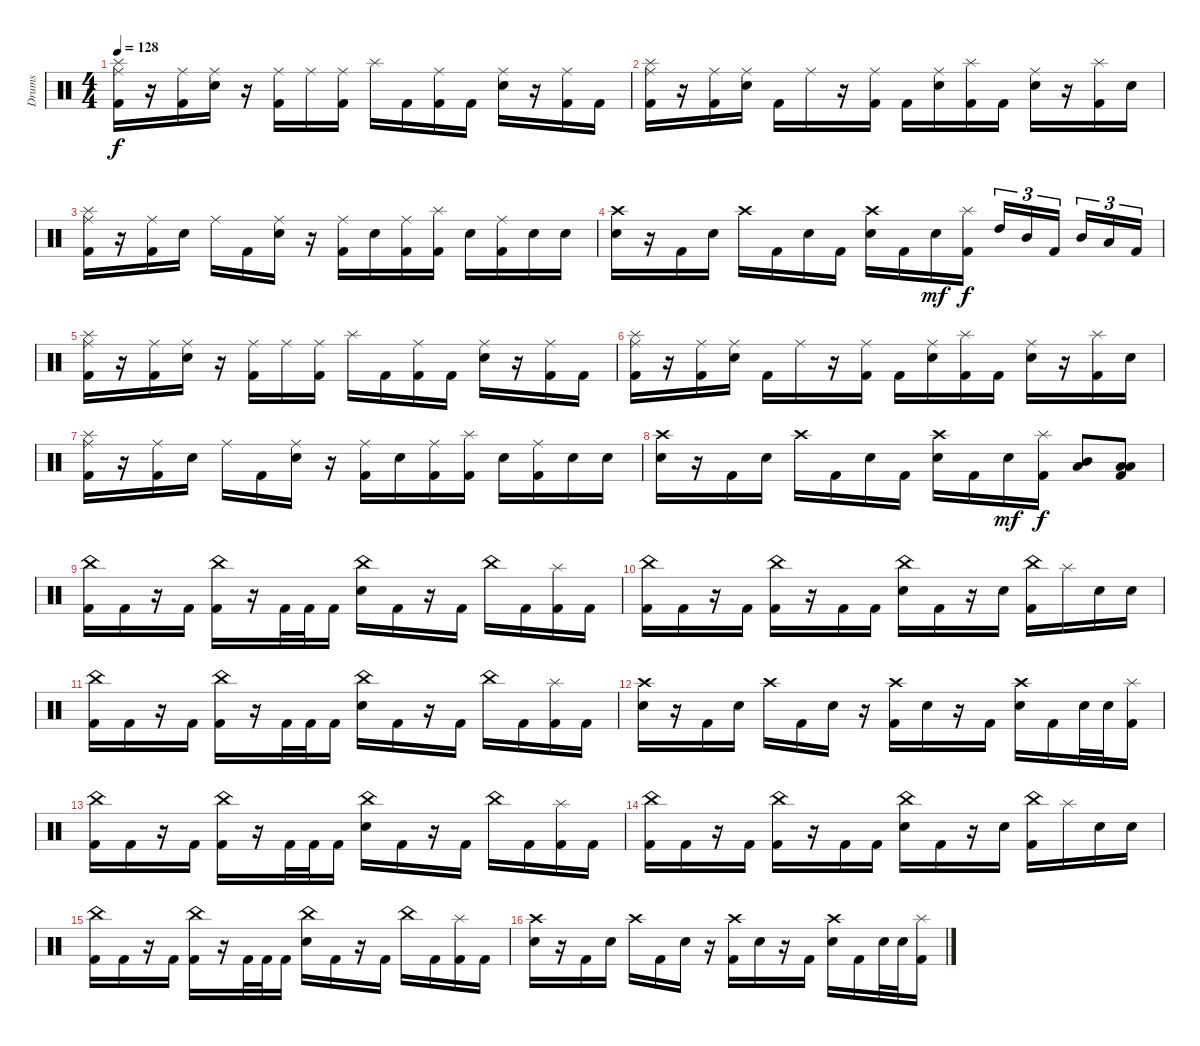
\track ("Drums" "Drums") {instrument percussion}
\staff {score}
\articulation defaults
\ts (4 4)
\tempo 128
\clef neutral
\ks c
("Ride (middle)" "Splash (hit)" "Kick (hit) 2").16{dy f} r.16 ("Ride (middle)" "Kick (hit) 2").16 ("Ride (middle)" "Electric Snare (hit)").16 r.16 ("Ride (middle)" "Kick (hit) 2").16 "Ride (middle)".16 ("Ride (middle)" "Kick (hit) 2").16 "Splash (hit)".16 "Kick (hit) 2".16 ("Ride (middle)" "Kick (hit) 2").16 "Kick (hit) 2".16 ("Ride (middle)" "Electric Snare (hit)").16 r.16 ("Ride (middle)" "Kick (hit) 2").16 "Kick (hit) 2".16 |
("Ride (middle)" "Splash (hit)" "Kick (hit) 2").16 r.16 ("Ride (middle)" "Kick (hit) 2").16 ("Ride (middle)" "Electric Snare (hit)").16 "Kick (hit) 2".16 "Ride (middle)".16 r.16 ("Ride (middle)" "Kick (hit) 2").16 "Kick (hit) 2".16 ("Ride (middle)" "Electric Snare (hit)").16 ("Splash (hit)" "Kick (hit) 2").16 "Kick (hit) 2".16 ("Ride (middle)" "Electric Snare (hit)").16 r.16 ("Splash (hit)" "Kick (hit) 2").16 "Electric Snare (hit)".16 |
("Ride (middle)" "Splash (hit)" "Kick (hit) 2").16 r.16 ("Ride (middle)" "Kick (hit) 2").16 "Electric Snare (hit)".16 "Ride (middle)".16 "Kick (hit) 2".16 ("Ride (middle)" "Electric Snare (hit)").16 r.16 ("Ride (middle)" "Kick (hit) 2").16 "Electric Snare (hit)".16 ("Ride (middle)" "Kick (hit) 2").16 ("Splash (hit)" "Kick (hit) 2").16 "Electric Snare (hit)".16 ("Ride (middle)" "Kick (hit) 2").16 "Electric Snare (hit)".16 "Electric Snare (hit)".16 |
("Crash high (hit)" "Electric Snare (hit)").16 r.16 "Kick (hit) 2".16 "Electric Snare (hit)".16 "Crash high (hit)".16 "Kick (hit) 2".16 "Electric Snare (hit)".16 "Kick (hit) 2".16 ("Crash high (hit)" "Electric Snare (hit)").16 "Kick (hit) 2".16 "Electric Snare (hit)".16{dy mf} ("Splash (hit)" "Kick (hit) 2").16{dy f} "High Tom (hit)".16{tu (3 2)} "Mid Tom (hit)".16{tu (3 2)} "Kick (hit) 2".16{tu (3 2)} "Mid Tom (hit)".16{tu (3 2)} "Low Tom (hit)".16{tu (3 2)} "Kick (hit) 2".16{tu (3 2)} |
("Ride (middle)" "Splash (hit)" "Kick (hit) 2").16 r.16 ("Ride (middle)" "Kick (hit) 2").16 ("Ride (middle)" "Electric Snare (hit)").16 r.16 ("Ride (middle)" "Kick (hit) 2").16 "Ride (middle)".16 ("Ride (middle)" "Kick (hit) 2").16 "Splash (hit)".16 "Kick (hit) 2".16 ("Ride (middle)" "Kick (hit) 2").16 "Kick (hit) 2".16 ("Ride (middle)" "Electric Snare (hit)").16 r.16 ("Ride (middle)" "Kick (hit) 2").16 "Kick (hit) 2".16 |
("Ride (middle)" "Splash (hit)" "Kick (hit) 2").16 r.16 ("Ride (middle)" "Kick (hit) 2").16 ("Ride (middle)" "Electric Snare (hit)").16 "Kick (hit) 2".16 "Ride (middle)".16 r.16 ("Ride (middle)" "Kick (hit) 2").16 "Kick (hit) 2".16 ("Ride (middle)" "Electric Snare (hit)").16 ("Splash (hit)" "Kick (hit) 2").16 "Kick (hit) 2".16 ("Ride (middle)" "Electric Snare (hit)").16 r.16 ("Splash (hit)" "Kick (hit) 2").16 "Electric Snare (hit)".16 |
("Ride (middle)" "Splash (hit)" "Kick (hit) 2").16 r.16 ("Ride (middle)" "Kick (hit) 2").16 "Electric Snare (hit)".16 "Ride (middle)".16 "Kick (hit) 2".16 ("Ride (middle)" "Electric Snare (hit)").16 r.16 ("Ride (middle)" "Kick (hit) 2").16 "Electric Snare (hit)".16 ("Ride (middle)" "Kick (hit) 2").16 ("Splash (hit)" "Kick (hit) 2").16 "Electric Snare (hit)".16 ("Ride (middle)" "Kick (hit) 2").16 "Electric Snare (hit)".16 "Electric Snare (hit)".16 |
("Crash high (hit)" "Electric Snare (hit)").16{volume 13} r.16 "Kick (hit) 2".16 "Electric Snare (hit)".16 "Crash high (hit)".16 "Kick (hit) 2".16 "Electric Snare (hit)".16 "Kick (hit) 2".16 ("Crash high (hit)" "Electric Snare (hit)").16 "Kick (hit) 2".16 "Electric Snare (hit)".16{dy mf} ("Splash (hit)" "Kick (hit) 2").16{dy f} ("Mid Tom (hit)" "Low Tom (hit)").8 ("Low Tom (hit)" "Low Floor Tom (hit)" "Kick (hit) 2").8 |
("China (hit)" "Kick (hit) 2").16 "Kick (hit) 2".16 r.16 "Kick (hit) 2".16 ("China (hit)" "Kick (hit) 2").16 r.16 "Kick (hit) 2".32 "Kick (hit) 2".32 "Kick (hit) 2".16 ("China (hit)" "Electric Snare (hit)").16 "Kick (hit) 2".16 r.16 "Kick (hit) 2".16 "China (hit)".16 "Kick (hit) 2".16 ("Splash (hit)" "Kick (hit) 2").16 "Kick (hit) 2".16 |
("China (hit)" "Kick (hit) 2").16 "Kick (hit) 2".16 r.16 "Kick (hit) 2".16 ("China (hit)" "Kick (hit) 2").16 r.16 "Kick (hit) 2".16 "Kick (hit) 2".16 ("China (hit)" "Electric Snare (hit)").16 "Kick (hit) 2".16 r.16 "Electric Snare (hit)".16 ("China (hit)" "Kick (hit) 2").16 "Splash (hit)".16 "Electric Snare (hit)".16 "Electric Snare (hit)".16 |
("China (hit)" "Kick (hit) 2").16 "Kick (hit) 2".16 r.16 "Kick (hit) 2".16 ("China (hit)" "Kick (hit) 2").16 r.16 "Kick (hit) 2".32 "Kick (hit) 2".32 "Kick (hit) 2".16 ("China (hit)" "Electric Snare (hit)").16 "Kick (hit) 2".16 r.16 "Kick (hit) 2".16 "China (hit)".16 "Kick (hit) 2".16 ("Splash (hit)" "Kick (hit) 2").16 "Kick (hit) 2".16 |
("Crash high (hit)" "Electric Snare (hit)").16 r.16 "Kick (hit) 2".16 "Electric Snare (hit)".16 "Crash high (hit)".16 "Kick (hit) 2".16 "Electric Snare (hit)".16 r.16 ("Crash high (hit)" "Kick (hit) 2").16 "Electric Snare (hit)".16 r.16 "Kick (hit) 2".16 ("Crash high (hit)" "Electric Snare (hit)").16 "Kick (hit) 2".16 "Electric Snare (hit)".32 "Electric Snare (hit)".32 ("Splash (hit)" "Kick (hit) 2").16 |
("China (hit)" "Kick (hit) 2").16 "Kick (hit) 2".16 r.16 "Kick (hit) 2".16 ("China (hit)" "Kick (hit) 2").16 r.16 "Kick (hit) 2".32 "Kick (hit) 2".32 "Kick (hit) 2".16 ("China (hit)" "Electric Snare (hit)").16 "Kick (hit) 2".16 r.16 "Kick (hit) 2".16 "China (hit)".16 "Kick (hit) 2".16 ("Splash (hit)" "Kick (hit) 2").16 "Kick (hit) 2".16 |
("China (hit)" "Kick (hit) 2").16 "Kick (hit) 2".16 r.16 "Kick (hit) 2".16 ("China (hit)" "Kick (hit) 2").16 r.16 "Kick (hit) 2".16 "Kick (hit) 2".16 ("China (hit)" "Electric Snare (hit)").16 "Kick (hit) 2".16 r.16 "Electric Snare (hit)".16 ("China (hit)" "Kick (hit) 2").16 "Splash (hit)".16 "Electric Snare (hit)".16 "Electric Snare (hit)".16 |
("China (hit)" "Kick (hit) 2").16 "Kick (hit) 2".16 r.16 "Kick (hit) 2".16 ("China (hit)" "Kick (hit) 2").16 r.16 "Kick (hit) 2".32 "Kick (hit) 2".32 "Kick (hit) 2".16 ("China (hit)" "Electric Snare (hit)").16 "Kick (hit) 2".16 r.16 "Kick (hit) 2".16 "China (hit)".16 "Kick (hit) 2".16 ("Splash (hit)" "Kick (hit) 2").16 "Kick (hit) 2".16 |
("Crash high (hit)" "Electric Snare (hit)").16 r.16 "Kick (hit) 2".16 "Electric Snare (hit)".16 "Crash high (hit)".16 "Kick (hit) 2".16 "Electric Snare (hit)".16 r.16 ("Crash high (hit)" "Kick (hit) 2").16 "Electric Snare (hit)".16 r.16 "Kick (hit) 2".16 ("Crash high (hit)" "Electric Snare (hit)").16 "Kick (hit) 2".16 "Electric Snare (hit)".32 "Electric Snare (hit)".32 ("Splash (hit)" "Kick (hit) 2").16
